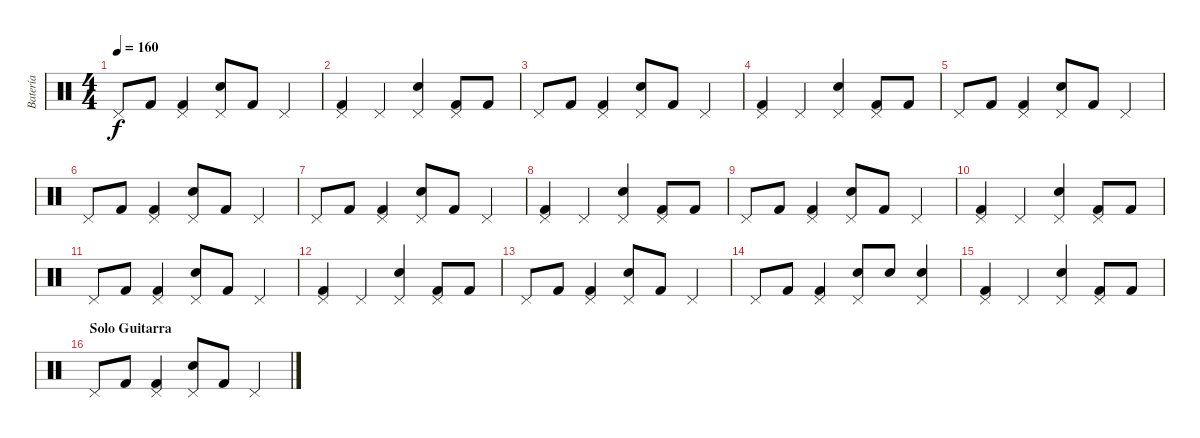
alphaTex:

\track ("Batería" "Batería") {instrument percussion}
\staff {score}
\articulation defaults
\ts (4 4)
\tempo 160
\clef neutral
\ks c "Pedal Hi-Hat (hit)".8{dy f} "Kick (hit) 2".8
("Kick (hit) 2" "Pedal Hi-Hat (hit)").4 ("Electric Snare (hit)" "Pedal Hi-Hat (hit)").8 "Kick (hit) 2".8 "Pedal Hi-Hat (hit)".4 |
("Kick (hit) 2" "Pedal Hi-Hat (hit)").4 "Pedal Hi-Hat (hit)".4 ("Electric Snare (hit)" "Pedal Hi-Hat (hit)").4 ("Kick (hit) 2" "Pedal Hi-Hat (hit)").8 "Kick (hit) 2".8 |
"Pedal Hi-Hat (hit)".8 "Kick (hit) 2".8 ("Kick (hit) 2" "Pedal Hi-Hat (hit)").4 ("Electric Snare (hit)" "Pedal Hi-Hat (hit)").8 "Kick (hit) 2".8 "Pedal Hi-Hat (hit)".4 |
("Kick (hit) 2" "Pedal Hi-Hat (hit)").4 "Pedal Hi-Hat (hit)".4 ("Electric Snare (hit)" "Pedal Hi-Hat (hit)").4 ("Kick (hit) 2" "Pedal Hi-Hat (hit)").8 "Kick (hit) 2".8 |
"Pedal Hi-Hat (hit)".8 "Kick (hit) 2".8 ("Kick (hit) 2" "Pedal Hi-Hat (hit)").4 ("Electric Snare (hit)" "Pedal Hi-Hat (hit)").8 "Kick (hit) 2".8 "Pedal Hi-Hat (hit)".4 |
"Pedal Hi-Hat (hit)".8 "Kick (hit) 2".8 ("Kick (hit) 2" "Pedal Hi-Hat (hit)").4 ("Electric Snare (hit)" "Pedal Hi-Hat (hit)").8 "Kick (hit) 2".8 "Pedal Hi-Hat (hit)".4 |
"Pedal Hi-Hat (hit)".8 "Kick (hit) 2".8 ("Kick (hit) 2" "Pedal Hi-Hat (hit)").4 ("Electric Snare (hit)" "Pedal Hi-Hat (hit)").8 "Kick (hit) 2".8 "Pedal Hi-Hat (hit)".4 |
("Kick (hit) 2" "Pedal Hi-Hat (hit)").4 "Pedal Hi-Hat (hit)".4 ("Electric Snare (hit)" "Pedal Hi-Hat (hit)").4 ("Kick (hit) 2" "Pedal Hi-Hat (hit)").8 "Kick (hit) 2".8 |
"Pedal Hi-Hat (hit)".8 "Kick (hit) 2".8 ("Kick (hit) 2" "Pedal Hi-Hat (hit)").4 ("Electric Snare (hit)" "Pedal Hi-Hat (hit)").8 "Kick (hit) 2".8 "Pedal Hi-Hat (hit)".4 |
("Kick (hit) 2" "Pedal Hi-Hat (hit)").4 "Pedal Hi-Hat (hit)".4 ("Electric Snare (hit)" "Pedal Hi-Hat (hit)").4 ("Kick (hit) 2" "Pedal Hi-Hat (hit)").8 "Kick (hit) 2".8 |
"Pedal Hi-Hat (hit)".8 "Kick (hit) 2".8 ("Kick (hit) 2" "Pedal Hi-Hat (hit)").4 ("Electric Snare (hit)" "Pedal Hi-Hat (hit)").8 "Kick (hit) 2".8 "Pedal Hi-Hat (hit)".4 |
("Kick (hit) 2" "Pedal Hi-Hat (hit)").4 "Pedal Hi-Hat (hit)".4 ("Electric Snare (hit)" "Pedal Hi-Hat (hit)").4 ("Kick (hit) 2" "Pedal Hi-Hat (hit)").8 "Kick (hit) 2".8 |
"Pedal Hi-Hat (hit)".8 "Kick (hit) 2".8 ("Kick (hit) 2" "Pedal Hi-Hat (hit)").4 ("Electric Snare (hit)" "Pedal Hi-Hat (hit)").8 "Kick (hit) 2".8 "Pedal Hi-Hat (hit)".4 |
"Pedal Hi-Hat (hit)".8 "Kick (hit) 2".8 ("Kick (hit) 2" "Pedal Hi-Hat (hit)").4 ("Electric Snare (hit)" "Pedal Hi-Hat (hit)").8 "Electric Snare (hit)".8 ("Electric Snare (hit)" "Pedal Hi-Hat (hit)").4 |
("Kick (hit) 2" "Pedal Hi-Hat (hit)").4 "Pedal Hi-Hat (hit)".4 ("Electric Snare (hit)" "Pedal Hi-Hat (hit)").4 ("Kick (hit) 2" "Pedal Hi-Hat (hit)").8 "Kick (hit) 2".8 |
\section ("" "Solo Guitarra")
"Pedal Hi-Hat (hit)".8 "Kick (hit) 2".8 ("Kick (hit) 2" "Pedal Hi-Hat (hit)").4 ("Electric Snare (hit)" "Pedal Hi-Hat (hit)").8 "Kick (hit) 2".8 "Pedal Hi-Hat (hit)".4
